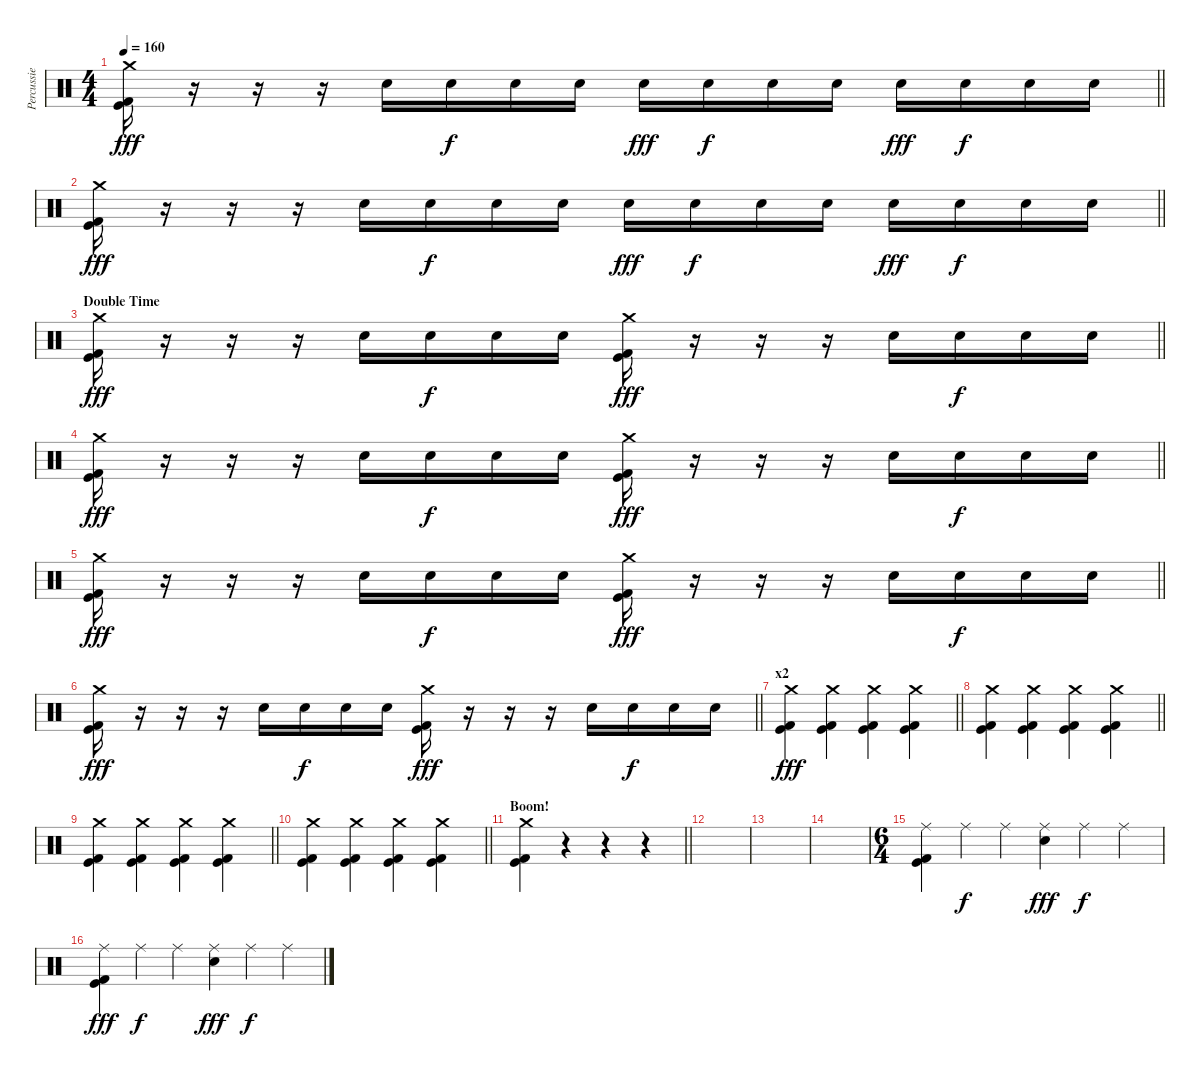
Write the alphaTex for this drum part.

\track ("Percussie" "Percussie") {instrument percussion}
\staff {score}
\articulation defaults
\ts (4 4)
\tempo 160
\clef neutral
\barLineRight lightlight
\ks c
("Crash medium (hit)" "Kick (hit)" "Kick (hit) 2").16{dy fff} r.16 r.16 r.16 "Snare (hit) 2".16 "Snare (hit) 2".16{dy f} "Snare (hit) 2".16 "Snare (hit) 2".16 "Snare (hit) 2".16{dy fff} "Snare (hit) 2".16{dy f} "Snare (hit) 2".16 "Snare (hit) 2".16 "Snare (hit) 2".16{dy fff} "Snare (hit) 2".16{dy f} "Snare (hit) 2".16 "Snare (hit) 2".16 |
\barLineRight lightlight
("Crash medium (hit)" "Kick (hit)" "Kick (hit) 2").16{dy fff} r.16 r.16 r.16 "Snare (hit) 2".16 "Snare (hit) 2".16{dy f} "Snare (hit) 2".16 "Snare (hit) 2".16 "Snare (hit) 2".16{dy fff} "Snare (hit) 2".16{dy f} "Snare (hit) 2".16 "Snare (hit) 2".16 "Snare (hit) 2".16{dy fff} "Snare (hit) 2".16{dy f} "Snare (hit) 2".16 "Snare (hit) 2".16 |
\section ("" "Double Time")
\barLineRight lightlight
("Crash medium (hit)" "Kick (hit)" "Kick (hit) 2").16{dy fff} r.16 r.16 r.16 "Snare (hit) 2".16 "Snare (hit) 2".16{dy f} "Snare (hit) 2".16 "Snare (hit) 2".16 ("Crash medium (hit)" "Kick (hit)" "Kick (hit) 2").16{dy fff} r.16 r.16 r.16 "Snare (hit) 2".16 "Snare (hit) 2".16{dy f} "Snare (hit) 2".16 "Snare (hit) 2".16 |
\barLineRight lightlight
("Crash medium (hit)" "Kick (hit)" "Kick (hit) 2").16{dy fff} r.16 r.16 r.16 "Snare (hit) 2".16 "Snare (hit) 2".16{dy f} "Snare (hit) 2".16 "Snare (hit) 2".16 ("Crash medium (hit)" "Kick (hit)" "Kick (hit) 2").16{dy fff} r.16 r.16 r.16 "Snare (hit) 2".16 "Snare (hit) 2".16{dy f} "Snare (hit) 2".16 "Snare (hit) 2".16 |
\barLineRight lightlight
("Crash medium (hit)" "Kick (hit)" "Kick (hit) 2").16{dy fff} r.16 r.16 r.16 "Snare (hit) 2".16 "Snare (hit) 2".16{dy f} "Snare (hit) 2".16 "Snare (hit) 2".16 ("Crash medium (hit)" "Kick (hit)" "Kick (hit) 2").16{dy fff} r.16 r.16 r.16 "Snare (hit) 2".16 "Snare (hit) 2".16{dy f} "Snare (hit) 2".16 "Snare (hit) 2".16 |
\barLineRight lightlight
("Crash medium (hit)" "Kick (hit)" "Kick (hit) 2").16{dy fff} r.16 r.16 r.16 "Snare (hit) 2".16 "Snare (hit) 2".16{dy f} "Snare (hit) 2".16 "Snare (hit) 2".16 ("Crash medium (hit)" "Kick (hit)" "Kick (hit) 2").16{dy fff} r.16 r.16 r.16 "Snare (hit) 2".16 "Snare (hit) 2".16{dy f} "Snare (hit) 2".16 "Snare (hit) 2".16 |
\section ("" "x2")
\barLineRight lightlight
("Crash medium (hit)" "Kick (hit)" "Kick (hit) 2").4{dy fff} ("Crash medium (hit)" "Kick (hit)" "Kick (hit) 2").4 ("Crash medium (hit)" "Kick (hit)" "Kick (hit) 2").4 ("Crash medium (hit)" "Kick (hit)" "Kick (hit) 2").4 |
\barLineRight lightlight
("Crash medium (hit)" "Kick (hit)" "Kick (hit) 2").4 ("Crash medium (hit)" "Kick (hit)" "Kick (hit) 2").4 ("Crash medium (hit)" "Kick (hit)" "Kick (hit) 2").4 ("Crash medium (hit)" "Kick (hit)" "Kick (hit) 2").4 |
\barLineRight lightlight
("Crash medium (hit)" "Kick (hit)" "Kick (hit) 2").4 ("Crash medium (hit)" "Kick (hit)" "Kick (hit) 2").4 ("Crash medium (hit)" "Kick (hit)" "Kick (hit) 2").4 ("Crash medium (hit)" "Kick (hit)" "Kick (hit) 2").4 |
\barLineRight lightlight
("Crash medium (hit)" "Kick (hit)" "Kick (hit) 2").4 ("Crash medium (hit)" "Kick (hit)" "Kick (hit) 2").4 ("Crash medium (hit)" "Kick (hit)" "Kick (hit) 2").4 ("Crash medium (hit)" "Kick (hit)" "Kick (hit) 2").4 |
\section ("" "Boom!")
\barLineRight lightlight
("Crash medium (hit)" "Kick (hit)" "Kick (hit) 2").4 r.4 r.4 r.4 |
|
|
|
\ts (6 4)
("Ride (middle)" "Kick (hit)" "Kick (hit) 2").4 "Ride (middle)".4{dy f} "Ride (middle)".4 ("Ride (middle)" "Snare (hit) 2").4{dy fff} "Ride (middle)".4{dy f} "Ride (middle)".4 |
("Ride (middle)" "Kick (hit)" "Kick (hit) 2").4{dy fff} "Ride (middle)".4{dy f} "Ride (middle)".4 ("Ride (middle)" "Snare (hit) 2").4{dy fff} "Ride (middle)".4{dy f} "Ride (middle)".4
